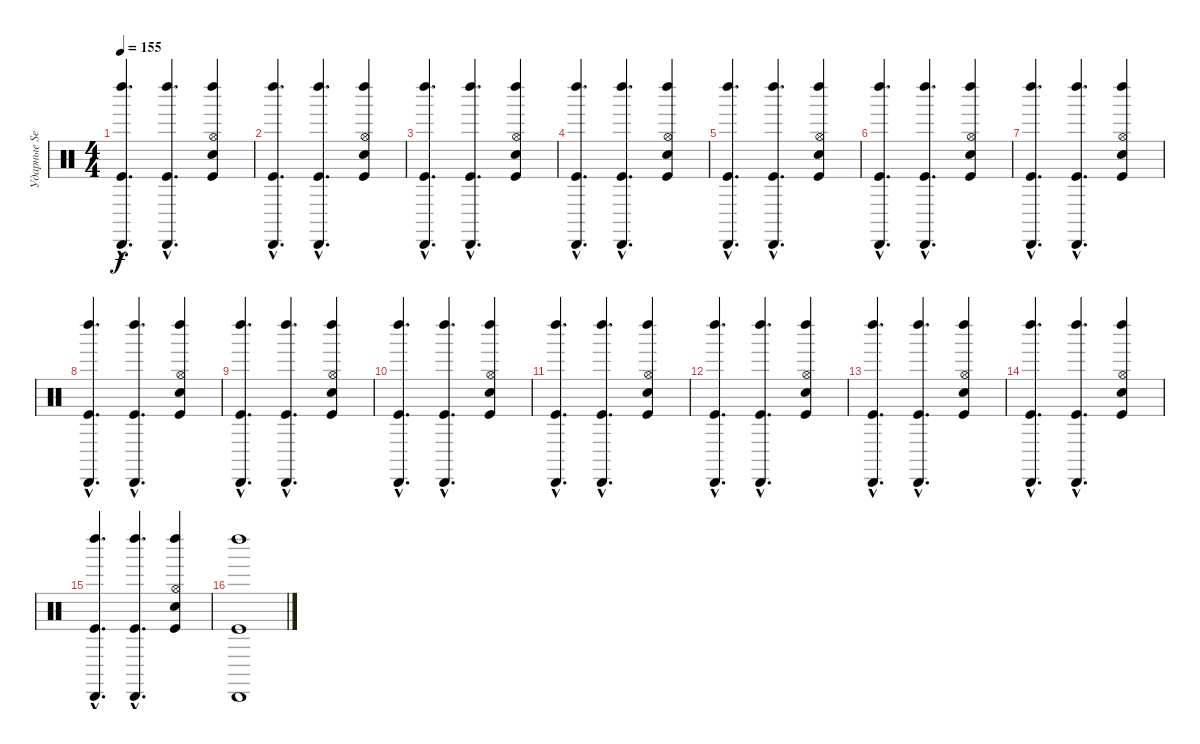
\track ("Ударные Serge Petrone" "Ударные Se") {instrument percussion}
\staff {score}
\articulation defaults
\ts (4 4)
\tempo 155
\clef neutral
\ks c
("Cabasa (hit)"{hac} "Kick (hit)"{hac} "Left Maraca (hit)"{hac}).4{d dy f} ("Cabasa (hit)"{hac} "Kick (hit)"{hac} "Left Maraca (hit)"{hac}).4{d} ("Hi-Hat (open)" "Hand Clap (hit)" "Kick (hit)" "Left Maraca (hit)").4 |
("Cabasa (hit)"{hac} "Kick (hit)"{hac} "Left Maraca (hit)"{hac}).4{d} ("Cabasa (hit)"{hac} "Kick (hit)"{hac} "Left Maraca (hit)"{hac}).4{d} ("Hi-Hat (open)" "Hand Clap (hit)" "Kick (hit)" "Left Maraca (hit)").4 |
("Cabasa (hit)"{hac} "Kick (hit)"{hac} "Left Maraca (hit)"{hac}).4{d} ("Cabasa (hit)"{hac} "Kick (hit)"{hac} "Left Maraca (hit)"{hac}).4{d} ("Hi-Hat (open)" "Hand Clap (hit)" "Kick (hit)" "Left Maraca (hit)").4 |
("Cabasa (hit)"{hac} "Kick (hit)"{hac} "Left Maraca (hit)"{hac}).4{d} ("Cabasa (hit)"{hac} "Kick (hit)"{hac} "Left Maraca (hit)"{hac}).4{d} ("Hi-Hat (open)" "Hand Clap (hit)" "Kick (hit)" "Left Maraca (hit)").4 |
("Cabasa (hit)"{hac} "Kick (hit)"{hac} "Left Maraca (hit)"{hac}).4{d} ("Cabasa (hit)"{hac} "Kick (hit)"{hac} "Left Maraca (hit)"{hac}).4{d} ("Hi-Hat (open)" "Hand Clap (hit)" "Kick (hit)" "Left Maraca (hit)").4 |
("Cabasa (hit)"{hac} "Kick (hit)"{hac} "Left Maraca (hit)"{hac}).4{d} ("Cabasa (hit)"{hac} "Kick (hit)"{hac} "Left Maraca (hit)"{hac}).4{d} ("Hi-Hat (open)" "Hand Clap (hit)" "Kick (hit)" "Left Maraca (hit)").4 |
("Cabasa (hit)"{hac} "Kick (hit)"{hac} "Left Maraca (hit)"{hac}).4{d} ("Cabasa (hit)"{hac} "Kick (hit)"{hac} "Left Maraca (hit)"{hac}).4{d} ("Hi-Hat (open)" "Hand Clap (hit)" "Kick (hit)" "Left Maraca (hit)").4 |
("Cabasa (hit)"{hac} "Kick (hit)"{hac} "Left Maraca (hit)"{hac}).4{d} ("Cabasa (hit)"{hac} "Kick (hit)"{hac} "Left Maraca (hit)"{hac}).4{d} ("Hi-Hat (open)" "Hand Clap (hit)" "Kick (hit)" "Left Maraca (hit)").4 |
("Cabasa (hit)"{hac} "Kick (hit)"{hac} "Left Maraca (hit)"{hac}).4{d} ("Cabasa (hit)"{hac} "Kick (hit)"{hac} "Left Maraca (hit)"{hac}).4{d} ("Hi-Hat (open)" "Hand Clap (hit)" "Kick (hit)" "Left Maraca (hit)").4 |
("Cabasa (hit)"{hac} "Kick (hit)"{hac} "Left Maraca (hit)"{hac}).4{d} ("Cabasa (hit)"{hac} "Kick (hit)"{hac} "Left Maraca (hit)"{hac}).4{d} ("Hi-Hat (open)" "Hand Clap (hit)" "Kick (hit)" "Left Maraca (hit)").4 |
("Cabasa (hit)"{hac} "Kick (hit)"{hac} "Left Maraca (hit)"{hac}).4{d} ("Cabasa (hit)"{hac} "Kick (hit)"{hac} "Left Maraca (hit)"{hac}).4{d} ("Hi-Hat (open)" "Hand Clap (hit)" "Kick (hit)" "Left Maraca (hit)").4 |
("Cabasa (hit)"{hac} "Kick (hit)"{hac} "Left Maraca (hit)"{hac}).4{d} ("Cabasa (hit)"{hac} "Kick (hit)"{hac} "Left Maraca (hit)"{hac}).4{d} ("Hi-Hat (open)" "Hand Clap (hit)" "Kick (hit)" "Left Maraca (hit)").4 |
("Cabasa (hit)"{hac} "Kick (hit)"{hac} "Left Maraca (hit)"{hac}).4{d} ("Cabasa (hit)"{hac} "Kick (hit)"{hac} "Left Maraca (hit)"{hac}).4{d} ("Hi-Hat (open)" "Hand Clap (hit)" "Kick (hit)" "Left Maraca (hit)").4 |
("Cabasa (hit)"{hac} "Kick (hit)"{hac} "Left Maraca (hit)"{hac}).4{d} ("Cabasa (hit)"{hac} "Kick (hit)"{hac} "Left Maraca (hit)"{hac}).4{d} ("Hi-Hat (open)" "Hand Clap (hit)" "Kick (hit)" "Left Maraca (hit)").4 |
("Cabasa (hit)"{hac} "Kick (hit)"{hac} "Left Maraca (hit)"{hac}).4{d} ("Cabasa (hit)"{hac} "Kick (hit)"{hac} "Left Maraca (hit)"{hac}).4{d} ("Hi-Hat (open)" "Hand Clap (hit)" "Kick (hit)" "Left Maraca (hit)").4 |
("Cabasa (hit)" "Kick (hit)" "Left Maraca (hit)").1
